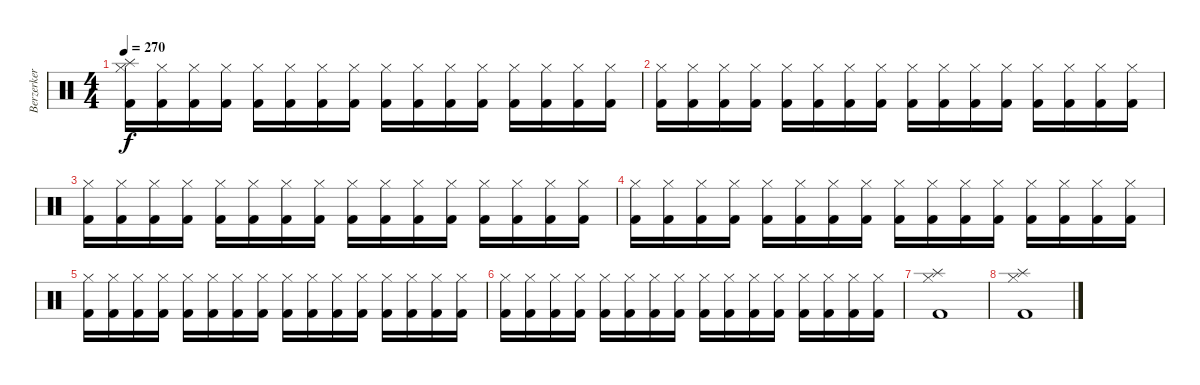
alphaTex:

\track ("Berzerker Drum Machine" "Berzerker ") {instrument percussion}
\staff {score}
\articulation defaults
\ts (4 4)
\tempo 270
\clef neutral
\ks c
("Splash (hit)" "Kick (hit) 2" "Hi-Hat (closed)").16{dy f} ("Kick (hit) 2" "Hi-Hat (closed)").16 ("Kick (hit) 2" "Hi-Hat (closed)").16 ("Kick (hit) 2" "Hi-Hat (closed)").16 ("Kick (hit) 2" "Hi-Hat (closed)").16 ("Kick (hit) 2" "Hi-Hat (closed)").16 ("Kick (hit) 2" "Hi-Hat (closed)").16 ("Kick (hit) 2" "Hi-Hat (closed)").16 ("Kick (hit) 2" "Hi-Hat (closed)").16 ("Kick (hit) 2" "Hi-Hat (closed)").16 ("Kick (hit) 2" "Hi-Hat (closed)").16 ("Kick (hit) 2" "Hi-Hat (closed)").16 ("Kick (hit) 2" "Hi-Hat (closed)").16 ("Kick (hit) 2" "Hi-Hat (closed)").16 ("Kick (hit) 2" "Hi-Hat (closed)").16 ("Kick (hit) 2" "Hi-Hat (closed)").16 |
("Kick (hit) 2" "Hi-Hat (closed)").16 ("Kick (hit) 2" "Hi-Hat (closed)").16 ("Kick (hit) 2" "Hi-Hat (closed)").16 ("Kick (hit) 2" "Hi-Hat (closed)").16 ("Kick (hit) 2" "Hi-Hat (closed)").16 ("Kick (hit) 2" "Hi-Hat (closed)").16 ("Kick (hit) 2" "Hi-Hat (closed)").16 ("Kick (hit) 2" "Hi-Hat (closed)").16 ("Kick (hit) 2" "Hi-Hat (closed)").16 ("Kick (hit) 2" "Hi-Hat (closed)").16 ("Kick (hit) 2" "Hi-Hat (closed)").16 ("Kick (hit) 2" "Hi-Hat (closed)").16 ("Kick (hit) 2" "Hi-Hat (closed)").16 ("Kick (hit) 2" "Hi-Hat (closed)").16 ("Kick (hit) 2" "Hi-Hat (closed)").16 ("Kick (hit) 2" "Hi-Hat (closed)").16 |
("Kick (hit) 2" "Hi-Hat (closed)").16 ("Kick (hit) 2" "Hi-Hat (closed)").16 ("Kick (hit) 2" "Hi-Hat (closed)").16 ("Kick (hit) 2" "Hi-Hat (closed)").16 ("Kick (hit) 2" "Hi-Hat (closed)").16 ("Kick (hit) 2" "Hi-Hat (closed)").16 ("Kick (hit) 2" "Hi-Hat (closed)").16 ("Kick (hit) 2" "Hi-Hat (closed)").16 ("Kick (hit) 2" "Hi-Hat (closed)").16 ("Kick (hit) 2" "Hi-Hat (closed)").16 ("Kick (hit) 2" "Hi-Hat (closed)").16 ("Kick (hit) 2" "Hi-Hat (closed)").16 ("Kick (hit) 2" "Hi-Hat (closed)").16 ("Kick (hit) 2" "Hi-Hat (closed)").16 ("Kick (hit) 2" "Hi-Hat (closed)").16 ("Kick (hit) 2" "Hi-Hat (closed)").16 |
("Kick (hit) 2" "Hi-Hat (closed)").16 ("Kick (hit) 2" "Hi-Hat (closed)").16 ("Kick (hit) 2" "Hi-Hat (closed)").16 ("Kick (hit) 2" "Hi-Hat (closed)").16 ("Kick (hit) 2" "Hi-Hat (closed)").16 ("Kick (hit) 2" "Hi-Hat (closed)").16 ("Kick (hit) 2" "Hi-Hat (closed)").16 ("Kick (hit) 2" "Hi-Hat (closed)").16 ("Kick (hit) 2" "Hi-Hat (closed)").16 ("Kick (hit) 2" "Hi-Hat (closed)").16 ("Kick (hit) 2" "Hi-Hat (closed)").16 ("Kick (hit) 2" "Hi-Hat (closed)").16 ("Kick (hit) 2" "Hi-Hat (closed)").16 ("Kick (hit) 2" "Hi-Hat (closed)").16 ("Kick (hit) 2" "Hi-Hat (closed)").16 ("Kick (hit) 2" "Hi-Hat (closed)").16 |
("Kick (hit) 2" "Hi-Hat (closed)").16 ("Kick (hit) 2" "Hi-Hat (closed)").16 ("Kick (hit) 2" "Hi-Hat (closed)").16 ("Kick (hit) 2" "Hi-Hat (closed)").16 ("Kick (hit) 2" "Hi-Hat (closed)").16 ("Kick (hit) 2" "Hi-Hat (closed)").16 ("Kick (hit) 2" "Hi-Hat (closed)").16 ("Kick (hit) 2" "Hi-Hat (closed)").16 ("Kick (hit) 2" "Hi-Hat (closed)").16 ("Kick (hit) 2" "Hi-Hat (closed)").16 ("Kick (hit) 2" "Hi-Hat (closed)").16 ("Kick (hit) 2" "Hi-Hat (closed)").16 ("Kick (hit) 2" "Hi-Hat (closed)").16 ("Kick (hit) 2" "Hi-Hat (closed)").16 ("Kick (hit) 2" "Hi-Hat (closed)").16 ("Kick (hit) 2" "Hi-Hat (closed)").16 |
("Kick (hit) 2" "Hi-Hat (closed)").16 ("Kick (hit) 2" "Hi-Hat (closed)").16 ("Kick (hit) 2" "Hi-Hat (closed)").16 ("Kick (hit) 2" "Hi-Hat (closed)").16 ("Kick (hit) 2" "Hi-Hat (closed)").16 ("Kick (hit) 2" "Hi-Hat (closed)").16 ("Kick (hit) 2" "Hi-Hat (closed)").16 ("Kick (hit) 2" "Hi-Hat (closed)").16 ("Kick (hit) 2" "Hi-Hat (closed)").16 ("Kick (hit) 2" "Hi-Hat (closed)").16 ("Kick (hit) 2" "Hi-Hat (closed)").16 ("Kick (hit) 2" "Hi-Hat (closed)").16 ("Kick (hit) 2" "Hi-Hat (closed)").16 ("Kick (hit) 2" "Hi-Hat (closed)").16 ("Kick (hit) 2" "Hi-Hat (closed)").16 ("Kick (hit) 2" "Hi-Hat (closed)").16 |
("Splash (hit)" "Kick (hit) 2" "Hi-Hat (closed)").1 |
("Splash (hit)" "Kick (hit) 2" "Hi-Hat (closed)").1
